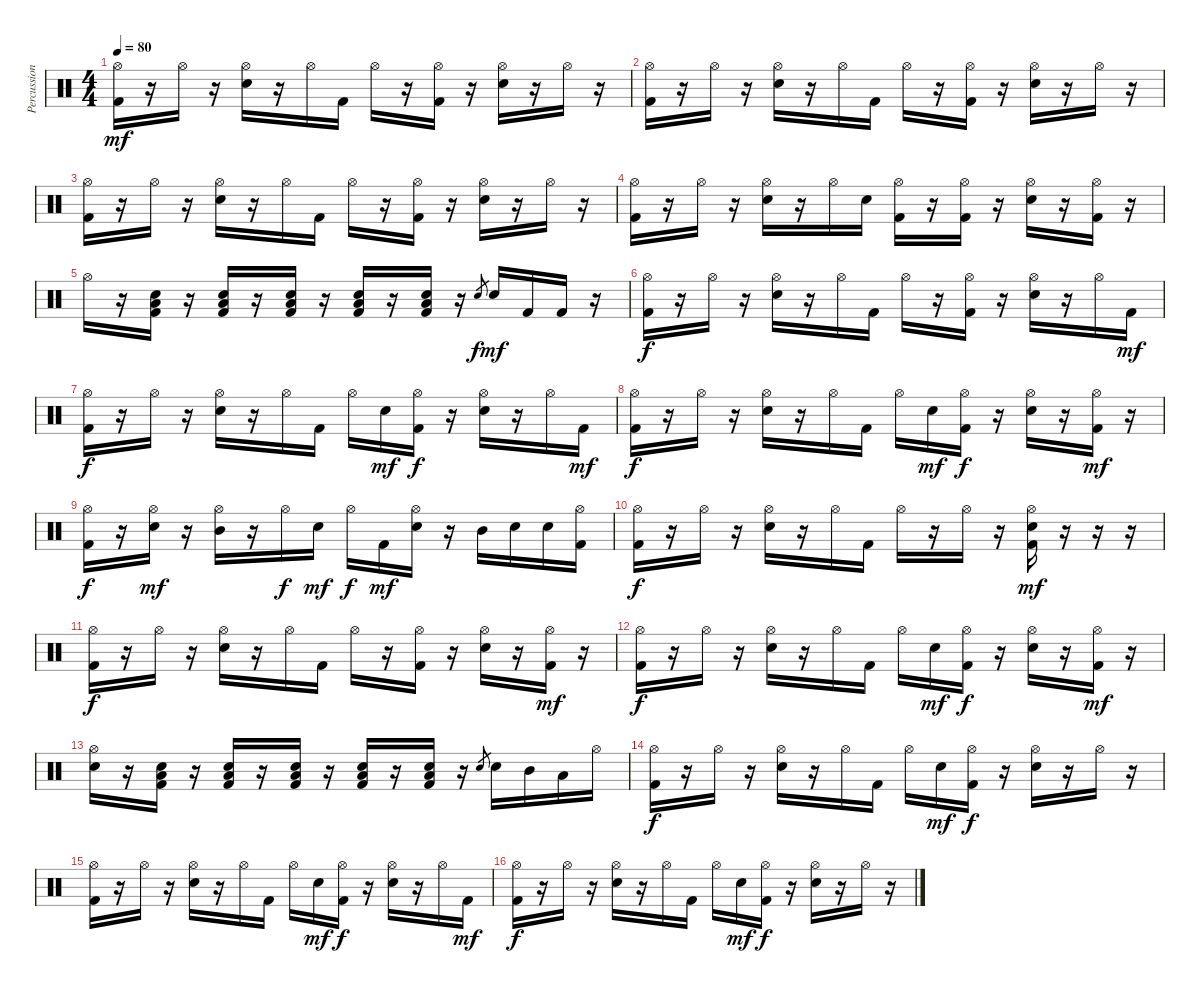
\track ("Percussion" "Percussion") {instrument percussion}
\staff {score}
\articulation defaults
\ts (4 4)
\tempo 80
\clef neutral
\ks c
("Hi-Hat (open)" "Kick (hit) 2").16{dy mf} r.16 "Hi-Hat (open)".16 r.16 ("Hi-Hat (open)" "Snare (hit) 2").16 r.16 "Hi-Hat (open)".16 "Kick (hit) 2".16 "Hi-Hat (open)".16 r.16 ("Hi-Hat (open)" "Kick (hit) 2").16 r.16 ("Hi-Hat (open)" "Snare (hit) 2").16 r.16 "Hi-Hat (open)".16 r.16 |
("Hi-Hat (open)" "Kick (hit) 2").16 r.16 "Hi-Hat (open)".16 r.16 ("Hi-Hat (open)" "Snare (hit) 2").16 r.16 "Hi-Hat (open)".16 "Kick (hit) 2".16 "Hi-Hat (open)".16 r.16 ("Hi-Hat (open)" "Kick (hit) 2").16 r.16 ("Hi-Hat (open)" "Snare (hit) 2").16 r.16 "Hi-Hat (open)".16 r.16 |
("Hi-Hat (open)" "Kick (hit) 2").16 r.16 "Hi-Hat (open)".16 r.16 ("Hi-Hat (open)" "Snare (hit) 2").16 r.16 "Hi-Hat (open)".16 "Kick (hit) 2".16 "Hi-Hat (open)".16 r.16 ("Hi-Hat (open)" "Kick (hit) 2").16 r.16 ("Hi-Hat (open)" "Snare (hit) 2").16 r.16 "Hi-Hat (open)".16 r.16 |
("Hi-Hat (open)" "Kick (hit) 2").16 r.16 "Hi-Hat (open)".16 r.16 ("Hi-Hat (open)" "Snare (hit) 2").16 r.16 "Hi-Hat (open)".16 "Snare (hit) 2".16 ("Hi-Hat (open)" "Kick (hit) 2").16 r.16 ("Hi-Hat (open)" "Kick (hit) 2").16 r.16 ("Hi-Hat (open)" "Snare (hit) 2").16 r.16 ("Hi-Hat (open)" "Kick (hit) 2").16 r.16 |
"Hi-Hat (open)".16 r.16 ("Snare (hit) 2" "Low Tom (hit)" "Kick (hit) 2").16 r.16 ("Snare (hit) 2" "Low Tom (hit)" "Kick (hit) 2").16 r.16 ("Snare (hit) 2" "Low Tom (hit)" "Kick (hit) 2").16 r.16 ("Snare (hit) 2" "Low Tom (hit)" "Kick (hit) 2").16 r.16 ("Snare (hit) 2" "Low Tom (hit)" "Kick (hit) 2").16 r.16 "Snare (hit) 2".8{gr dy f} "Snare (hit) 2".16{dy mf} "Kick (hit) 2".16 "Kick (hit) 2".16 r.16 |
("Hi-Hat (open)" "Kick (hit) 2").16{dy f} r.16 "Hi-Hat (open)".16 r.16 ("Hi-Hat (open)" "Snare (hit) 2").16 r.16 "Hi-Hat (open)".16 "Kick (hit) 2".16 "Hi-Hat (open)".16 r.16 ("Hi-Hat (open)" "Kick (hit) 2").16 r.16 ("Hi-Hat (open)" "Snare (hit) 2").16 r.16 "Hi-Hat (open)".16 "Kick (hit) 2".16{dy mf} |
("Hi-Hat (open)" "Kick (hit) 2").16{dy f} r.16 "Hi-Hat (open)".16 r.16 ("Hi-Hat (open)" "Snare (hit) 2").16 r.16 "Hi-Hat (open)".16 "Kick (hit) 2".16 "Hi-Hat (open)".16 "Snare (hit) 2".16{dy mf} ("Hi-Hat (open)" "Kick (hit) 2").16{dy f} r.16 ("Hi-Hat (open)" "Snare (hit) 2").16 r.16 "Hi-Hat (open)".16 "Kick (hit) 2".16{dy mf} |
("Hi-Hat (open)" "Kick (hit) 2").16{dy f} r.16 "Hi-Hat (open)".16 r.16 ("Hi-Hat (open)" "Snare (hit) 2").16 r.16 "Hi-Hat (open)".16 "Kick (hit) 2".16 "Hi-Hat (open)".16 "Snare (hit) 2".16{dy mf} ("Hi-Hat (open)" "Kick (hit) 2").16{dy f} r.16 ("Hi-Hat (open)" "Snare (hit) 2").16 r.16 ("Hi-Hat (open)" "Kick (hit) 2").16{dy mf} r.16 |
("Hi-Hat (open)" "Kick (hit) 2").16{dy f} r.16 ("Hi-Hat (open)" "Snare (hit) 2").16{dy mf} r.16 ("Hi-Hat (open)" "Mid Tom (hit)").16 r.16 "Hi-Hat (open)".16{dy f} "Snare (hit) 2".16{dy mf} "Hi-Hat (open)".16{dy f} "Kick (hit) 2".16{dy mf} ("Hi-Hat (open)" "Snare (hit) 2").16 r.16 "Mid Tom (hit)".16 "Snare (hit) 2".16 "Snare (hit) 2".16 ("Hi-Hat (open)" "Kick (hit) 2").16 |
("Hi-Hat (open)" "Kick (hit) 2").16{dy f} r.16 "Hi-Hat (open)".16 r.16 ("Hi-Hat (open)" "Snare (hit) 2").16 r.16 "Hi-Hat (open)".16 "Kick (hit) 2".16 "Hi-Hat (open)".16 r.16 "Hi-Hat (open)".16 r.16 ("Hi-Hat (open)" "Snare (hit) 2" "Kick (hit) 2").16{dy mf} r.16 r.16 r.16 |
("Hi-Hat (open)" "Kick (hit) 2").16{dy f} r.16 "Hi-Hat (open)".16 r.16 ("Hi-Hat (open)" "Snare (hit) 2").16 r.16 "Hi-Hat (open)".16 "Kick (hit) 2".16 "Hi-Hat (open)".16 r.16 ("Hi-Hat (open)" "Kick (hit) 2").16 r.16 ("Hi-Hat (open)" "Snare (hit) 2").16 r.16 ("Hi-Hat (open)" "Kick (hit) 2").16{dy mf} r.16 |
("Hi-Hat (open)" "Kick (hit) 2").16{dy f} r.16 "Hi-Hat (open)".16 r.16 ("Hi-Hat (open)" "Snare (hit) 2").16 r.16 "Hi-Hat (open)".16 "Kick (hit) 2".16 "Hi-Hat (open)".16 "Snare (hit) 2".16{dy mf} ("Hi-Hat (open)" "Kick (hit) 2").16{dy f} r.16 ("Hi-Hat (open)" "Snare (hit) 2").16 r.16 ("Hi-Hat (open)" "Kick (hit) 2").16{dy mf} r.16 |
("Hi-Hat (open)" "Snare (hit) 2").16 r.16 ("Snare (hit) 2" "Low Tom (hit)" "Kick (hit) 2").16 r.16 ("Snare (hit) 2" "Low Tom (hit)" "Kick (hit) 2").16 r.16 ("Snare (hit) 2" "Low Tom (hit)" "Kick (hit) 2").16 r.16 ("Snare (hit) 2" "Low Tom (hit)" "Kick (hit) 2").16 r.16 ("Snare (hit) 2" "Low Tom (hit)" "Kick (hit) 2").16 r.16 "Snare (hit) 2".8{gr} "Snare (hit) 2".16 "Mid Tom (hit)".16 "Low Tom (hit)".16 "Hi-Hat (open)".16 |
("Hi-Hat (open)" "Kick (hit) 2").16{dy f} r.16 "Hi-Hat (open)".16 r.16 ("Hi-Hat (open)" "Snare (hit) 2").16 r.16 "Hi-Hat (open)".16 "Kick (hit) 2".16 "Hi-Hat (open)".16 "Snare (hit) 2".16{dy mf} ("Hi-Hat (open)" "Kick (hit) 2").16{dy f} r.16 ("Hi-Hat (open)" "Snare (hit) 2").16 r.16 "Hi-Hat (open)".16 r.16 |
("Hi-Hat (open)" "Kick (hit) 2").16 r.16 "Hi-Hat (open)".16 r.16 ("Hi-Hat (open)" "Snare (hit) 2").16 r.16 "Hi-Hat (open)".16 "Kick (hit) 2".16 "Hi-Hat (open)".16 "Snare (hit) 2".16{dy mf} ("Hi-Hat (open)" "Kick (hit) 2").16{dy f} r.16 ("Hi-Hat (open)" "Snare (hit) 2").16 r.16 "Hi-Hat (open)".16 "Kick (hit) 2".16{dy mf} |
("Hi-Hat (open)" "Kick (hit) 2").16{dy f} r.16 "Hi-Hat (open)".16 r.16 ("Hi-Hat (open)" "Snare (hit) 2").16 r.16 "Hi-Hat (open)".16 "Kick (hit) 2".16 "Hi-Hat (open)".16 "Snare (hit) 2".16{dy mf} ("Hi-Hat (open)" "Kick (hit) 2").16{dy f} r.16 ("Hi-Hat (open)" "Snare (hit) 2").16 r.16 "Hi-Hat (open)".16 r.16
